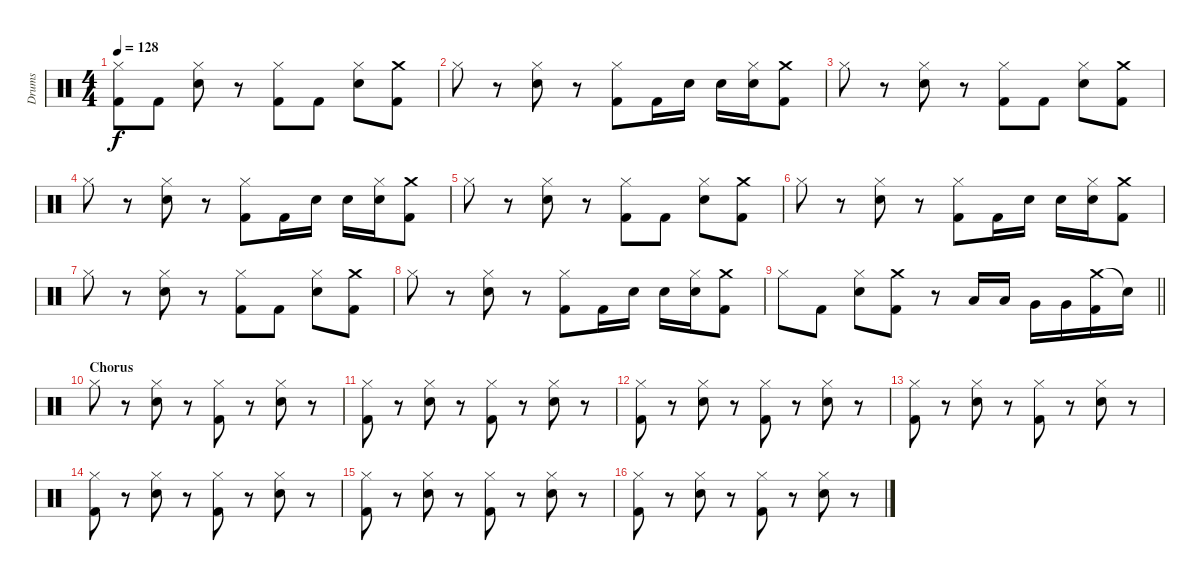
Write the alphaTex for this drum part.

\track ("Drums" "Drums") {instrument percussion}
\staff {score}
\articulation defaults
\ts (4 4)
\tempo 128
\clef neutral
\ks c
("Hi-Hat (closed)" "Kick (hit) 2").8{dy f} "Kick (hit) 2".8 ("Hi-Hat (closed)" "Snare (hit) 2").8 r.8 ("Hi-Hat (closed)" "Kick (hit) 2").8 "Kick (hit) 2".8 ("Hi-Hat (closed)" "Snare (hit) 2").8 ("Crash medium (hit)" "Kick (hit) 2").8 |
"Hi-Hat (closed)".8 r.8 ("Hi-Hat (closed)" "Snare (hit) 2").8 r.8 ("Hi-Hat (closed)" "Kick (hit) 2").8 "Kick (hit) 2".16 "Snare (hit) 2".16 "Snare (hit) 2".16 ("Hi-Hat (closed)" "Snare (hit) 2").16 ("Crash medium (hit)" "Kick (hit) 2").8 |
"Hi-Hat (closed)".8 r.8 ("Hi-Hat (closed)" "Snare (hit) 2").8 r.8 ("Hi-Hat (closed)" "Kick (hit) 2").8 "Kick (hit) 2".8 ("Hi-Hat (closed)" "Snare (hit) 2").8 ("Crash medium (hit)" "Kick (hit) 2").8 |
"Hi-Hat (closed)".8 r.8 ("Hi-Hat (closed)" "Snare (hit) 2").8 r.8 ("Hi-Hat (closed)" "Kick (hit) 2").8 "Kick (hit) 2".16 "Snare (hit) 2".16 "Snare (hit) 2".16 ("Hi-Hat (closed)" "Snare (hit) 2").16 ("Crash medium (hit)" "Kick (hit) 2").8 |
"Hi-Hat (closed)".8 r.8 ("Hi-Hat (closed)" "Snare (hit) 2").8 r.8 ("Hi-Hat (closed)" "Kick (hit) 2").8 "Kick (hit) 2".8 ("Hi-Hat (closed)" "Snare (hit) 2").8 ("Crash medium (hit)" "Kick (hit) 2").8 |
"Hi-Hat (closed)".8 r.8 ("Hi-Hat (closed)" "Snare (hit) 2").8 r.8 ("Hi-Hat (closed)" "Kick (hit) 2").8 "Kick (hit) 2".16 "Snare (hit) 2".16 "Snare (hit) 2".16 ("Hi-Hat (closed)" "Snare (hit) 2").16 ("Crash medium (hit)" "Kick (hit) 2").8 |
"Hi-Hat (closed)".8 r.8 ("Hi-Hat (closed)" "Snare (hit) 2").8 r.8 ("Hi-Hat (closed)" "Kick (hit) 2").8 "Kick (hit) 2".8 ("Hi-Hat (closed)" "Snare (hit) 2").8 ("Crash medium (hit)" "Kick (hit) 2").8 |
"Hi-Hat (closed)".8 r.8 ("Hi-Hat (closed)" "Snare (hit) 2").8 r.8 ("Hi-Hat (closed)" "Kick (hit) 2").8 "Kick (hit) 2".16 "Snare (hit) 2".16 "Snare (hit) 2".16 ("Hi-Hat (closed)" "Snare (hit) 2").16 ("Crash medium (hit)" "Kick (hit) 2").8 |
\barLineRight lightlight "Hi-Hat (closed)".8 "Kick (hit) 2".8
("Hi-Hat (closed)" "Snare (hit) 2").8 ("Crash medium (hit)" "Kick (hit) 2").8 r.8 "Low Tom (hit)".16 "Low Tom (hit)".16 "Very Low Tom (hit)".16 "Very Low Tom (hit)".16 ("Crash medium (hit)" "Kick (hit) 2").16 "Snare (hit)"{t}.16 |
\section ("" "Chorus")
"Hi-Hat (closed)".8 r.8 ("Hi-Hat (closed)" "Snare (hit) 2").8 r.8 ("Hi-Hat (closed)" "Kick (hit) 2").8 r.8 ("Hi-Hat (closed)" "Snare (hit) 2").8 r.8 |
("Hi-Hat (closed)" "Kick (hit) 2").8 r.8 ("Hi-Hat (closed)" "Snare (hit) 2").8 r.8 ("Hi-Hat (closed)" "Kick (hit) 2").8 r.8 ("Hi-Hat (closed)" "Snare (hit) 2").8 r.8 |
("Hi-Hat (closed)" "Kick (hit) 2").8 r.8 ("Hi-Hat (closed)" "Snare (hit) 2").8 r.8 ("Hi-Hat (closed)" "Kick (hit) 2").8 r.8 ("Hi-Hat (closed)" "Snare (hit) 2").8 r.8 |
("Hi-Hat (closed)" "Kick (hit) 2").8 r.8 ("Hi-Hat (closed)" "Snare (hit) 2").8 r.8 ("Hi-Hat (closed)" "Kick (hit) 2").8 r.8 ("Hi-Hat (closed)" "Snare (hit) 2").8 r.8 |
("Hi-Hat (closed)" "Kick (hit) 2").8 r.8 ("Hi-Hat (closed)" "Snare (hit) 2").8 r.8 ("Hi-Hat (closed)" "Kick (hit) 2").8 r.8 ("Hi-Hat (closed)" "Snare (hit) 2").8 r.8 |
("Hi-Hat (closed)" "Kick (hit) 2").8 r.8 ("Hi-Hat (closed)" "Snare (hit) 2").8 r.8 ("Hi-Hat (closed)" "Kick (hit) 2").8 r.8 ("Hi-Hat (closed)" "Snare (hit) 2").8 r.8 |
("Hi-Hat (closed)" "Kick (hit) 2").8 r.8 ("Hi-Hat (closed)" "Snare (hit) 2").8 r.8 ("Hi-Hat (closed)" "Kick (hit) 2").8 r.8 ("Hi-Hat (closed)" "Snare (hit) 2").8 r.8
